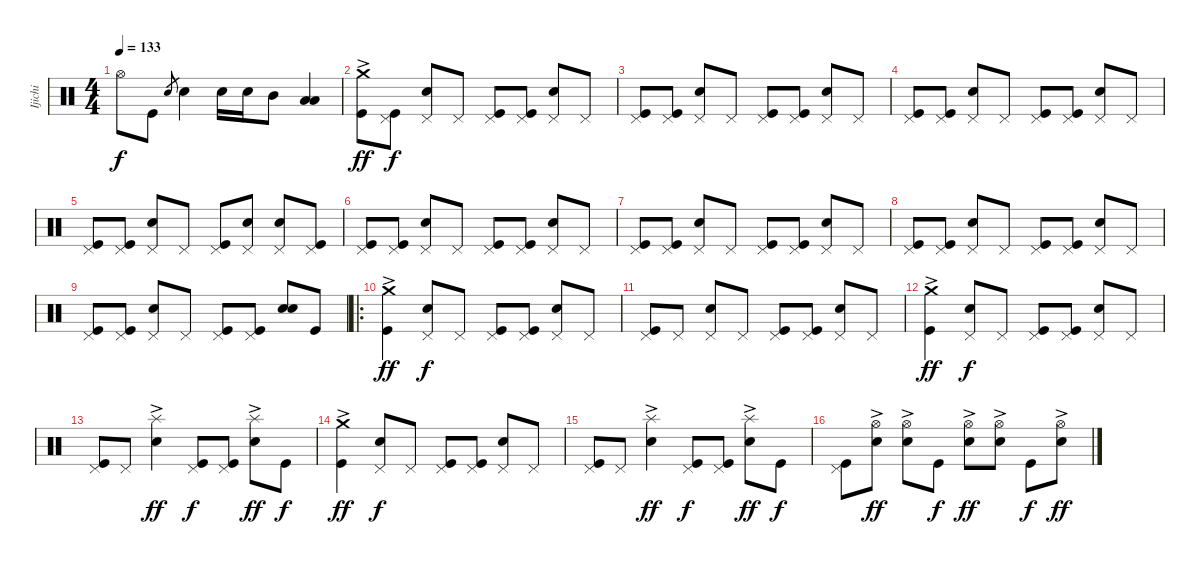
\track ("Ijichi" "Ijichi") {instrument percussion}
\staff {score}
\articulation defaults
\ts (4 4)
\tempo 133
\clef neutral
\ks c "Hi-Hat (open)".8{dy f} "Kick (hit)".8 "Electric Snare (hit)".8{gr} "Electric Snare (hit)".4 "Electric Snare (hit)".16 "Electric Snare (hit)".16 "Mid Tom (hit)".8
("Low Tom (hit)" "Low Tom (hit)").4 |
("Crash medium (hit)"{ac} "Kick (hit)").8{dy ff} ("Pedal Hi-Hat (hit)" "Kick (hit)").8{dy f} ("Pedal Hi-Hat (hit)" "Electric Snare (hit)").8 "Pedal Hi-Hat (hit)".8 ("Pedal Hi-Hat (hit)" "Kick (hit)").8 ("Pedal Hi-Hat (hit)" "Kick (hit)").8 ("Pedal Hi-Hat (hit)" "Electric Snare (hit)").8 "Pedal Hi-Hat (hit)".8 |
("Pedal Hi-Hat (hit)" "Kick (hit)").8 ("Pedal Hi-Hat (hit)" "Kick (hit)").8 ("Pedal Hi-Hat (hit)" "Electric Snare (hit)").8 "Pedal Hi-Hat (hit)".8 ("Pedal Hi-Hat (hit)" "Kick (hit)").8 ("Pedal Hi-Hat (hit)" "Kick (hit)").8 ("Pedal Hi-Hat (hit)" "Electric Snare (hit)").8 "Pedal Hi-Hat (hit)".8 |
("Pedal Hi-Hat (hit)" "Kick (hit)").8 ("Pedal Hi-Hat (hit)" "Kick (hit)").8 ("Pedal Hi-Hat (hit)" "Electric Snare (hit)").8 "Pedal Hi-Hat (hit)".8 ("Pedal Hi-Hat (hit)" "Kick (hit)").8 ("Pedal Hi-Hat (hit)" "Kick (hit)").8 ("Pedal Hi-Hat (hit)" "Electric Snare (hit)").8 "Pedal Hi-Hat (hit)".8 |
("Pedal Hi-Hat (hit)" "Kick (hit)").8 ("Pedal Hi-Hat (hit)" "Kick (hit)").8 ("Pedal Hi-Hat (hit)" "Electric Snare (hit)").8 "Pedal Hi-Hat (hit)".8 ("Pedal Hi-Hat (hit)" "Kick (hit)").8 ("Pedal Hi-Hat (hit)" "Electric Snare (hit)").8 ("Pedal Hi-Hat (hit)" "Electric Snare (hit)").8 ("Pedal Hi-Hat (hit)" "Kick (hit)").8 |
("Pedal Hi-Hat (hit)" "Kick (hit)").8 ("Pedal Hi-Hat (hit)" "Kick (hit)").8 ("Pedal Hi-Hat (hit)" "Electric Snare (hit)").8 "Pedal Hi-Hat (hit)".8 ("Pedal Hi-Hat (hit)" "Kick (hit)").8 ("Pedal Hi-Hat (hit)" "Kick (hit)").8 ("Pedal Hi-Hat (hit)" "Electric Snare (hit)").8 "Pedal Hi-Hat (hit)".8 |
("Pedal Hi-Hat (hit)" "Kick (hit)").8 ("Pedal Hi-Hat (hit)" "Kick (hit)").8 ("Pedal Hi-Hat (hit)" "Electric Snare (hit)").8 "Pedal Hi-Hat (hit)".8 ("Pedal Hi-Hat (hit)" "Kick (hit)").8 ("Pedal Hi-Hat (hit)" "Kick (hit)").8 ("Pedal Hi-Hat (hit)" "Electric Snare (hit)").8 "Pedal Hi-Hat (hit)".8 |
("Pedal Hi-Hat (hit)" "Kick (hit)").8 ("Pedal Hi-Hat (hit)" "Kick (hit)").8 ("Pedal Hi-Hat (hit)" "Electric Snare (hit)").8 "Pedal Hi-Hat (hit)".8 ("Pedal Hi-Hat (hit)" "Kick (hit)").8 ("Pedal Hi-Hat (hit)" "Kick (hit)").8 ("Pedal Hi-Hat (hit)" "Electric Snare (hit)").8 "Pedal Hi-Hat (hit)".8 |
("Pedal Hi-Hat (hit)" "Kick (hit)").8 ("Pedal Hi-Hat (hit)" "Kick (hit)").8 ("Pedal Hi-Hat (hit)" "Electric Snare (hit)").8 "Pedal Hi-Hat (hit)".8 ("Pedal Hi-Hat (hit)" "Kick (hit)").8 ("Pedal Hi-Hat (hit)" "Kick (hit)").8 ("Electric Snare (hit)" "Electric Snare (hit)").8 "Kick (hit)".8 |
\ro
("Crash medium (hit)"{ac} "Kick (hit)").4{dy ff} ("Pedal Hi-Hat (hit)" "Electric Snare (hit)").8{dy f} "Pedal Hi-Hat (hit)".8 ("Pedal Hi-Hat (hit)" "Kick (hit)").8 ("Pedal Hi-Hat (hit)" "Kick (hit)").8 ("Pedal Hi-Hat (hit)" "Electric Snare (hit)").8 "Pedal Hi-Hat (hit)".8 |
("Pedal Hi-Hat (hit)" "Kick (hit)").8 "Pedal Hi-Hat (hit)".8 ("Pedal Hi-Hat (hit)" "Electric Snare (hit)").8 "Pedal Hi-Hat (hit)".8 ("Pedal Hi-Hat (hit)" "Kick (hit)").8 ("Pedal Hi-Hat (hit)" "Kick (hit)").8 ("Pedal Hi-Hat (hit)" "Electric Snare (hit)").8 "Pedal Hi-Hat (hit)".8 |
("Crash medium (hit)"{ac} "Kick (hit)").4{dy ff} ("Pedal Hi-Hat (hit)" "Electric Snare (hit)").8{dy f} "Pedal Hi-Hat (hit)".8 ("Pedal Hi-Hat (hit)" "Kick (hit)").8 ("Pedal Hi-Hat (hit)" "Kick (hit)").8 ("Pedal Hi-Hat (hit)" "Electric Snare (hit)").8 "Pedal Hi-Hat (hit)".8 |
("Pedal Hi-Hat (hit)" "Kick (hit)").8 "Pedal Hi-Hat (hit)".8 ("Splash (hit)"{ac} "Electric Snare (hit)").4{dy ff} ("Pedal Hi-Hat (hit)" "Kick (hit)").8{dy f} ("Pedal Hi-Hat (hit)" "Kick (hit)").8 ("Splash (hit)"{ac} "Electric Snare (hit)").8{dy ff} "Kick (hit)".8{dy f} |
("Crash medium (hit)"{ac} "Kick (hit)").4{dy ff} ("Pedal Hi-Hat (hit)" "Electric Snare (hit)").8{dy f} "Pedal Hi-Hat (hit)".8 ("Pedal Hi-Hat (hit)" "Kick (hit)").8 ("Pedal Hi-Hat (hit)" "Kick (hit)").8 ("Pedal Hi-Hat (hit)" "Electric Snare (hit)").8 "Pedal Hi-Hat (hit)".8 |
("Pedal Hi-Hat (hit)" "Kick (hit)").8 "Pedal Hi-Hat (hit)".8 ("Splash (hit)"{ac} "Electric Snare (hit)").4{dy ff} ("Pedal Hi-Hat (hit)" "Kick (hit)").8{dy f} ("Pedal Hi-Hat (hit)" "Kick (hit)").8 ("Splash (hit)"{ac} "Electric Snare (hit)").8{dy ff} "Kick (hit)".8{dy f} |
("Pedal Hi-Hat (hit)" "Kick (hit)").8 ("Hi-Hat (open)"{ac} "Electric Snare (hit)").8{dy ff} ("Hi-Hat (open)"{ac} "Electric Snare (hit)").8 "Kick (hit)".8{dy f} ("Hi-Hat (open)"{ac} "Electric Snare (hit)").8{dy ff} ("Hi-Hat (open)"{ac} "Electric Snare (hit)").8 "Kick (hit)".8{dy f} ("Hi-Hat (open)"{ac} "Electric Snare (hit)").8{dy ff}
